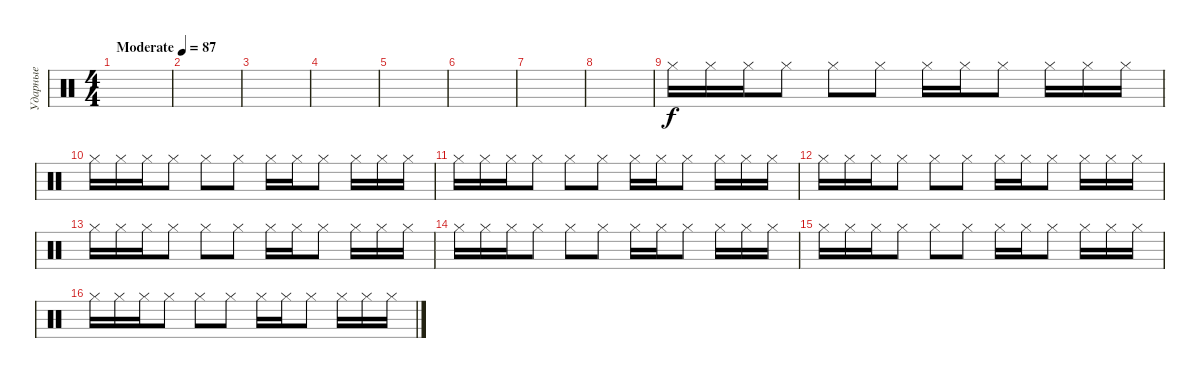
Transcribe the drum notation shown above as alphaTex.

\track ("Ударные" "Ударные") {instrument percussion}
\staff {score}
\articulation defaults
\ts (4 4)
\tempo (87 "Moderate")
\clef neutral
\ks c
|
|
|
|
|
|
|
|
"Hi-Hat (closed)".16 "Hi-Hat (closed)".16 "Hi-Hat (closed)".16 "Hi-Hat (closed)".8 "Hi-Hat (closed)".8 "Hi-Hat (closed)".8 "Hi-Hat (closed)".16 "Hi-Hat (closed)".16 "Hi-Hat (closed)".8 "Hi-Hat (closed)".16 "Hi-Hat (closed)".16 "Hi-Hat (closed)".16 |
"Hi-Hat (closed)".16 "Hi-Hat (closed)".16 "Hi-Hat (closed)".16 "Hi-Hat (closed)".8 "Hi-Hat (closed)".8 "Hi-Hat (closed)".8 "Hi-Hat (closed)".16 "Hi-Hat (closed)".16 "Hi-Hat (closed)".8 "Hi-Hat (closed)".16 "Hi-Hat (closed)".16 "Hi-Hat (closed)".16 |
"Hi-Hat (closed)".16 "Hi-Hat (closed)".16 "Hi-Hat (closed)".16 "Hi-Hat (closed)".8 "Hi-Hat (closed)".8 "Hi-Hat (closed)".8 "Hi-Hat (closed)".16 "Hi-Hat (closed)".16 "Hi-Hat (closed)".8 "Hi-Hat (closed)".16 "Hi-Hat (closed)".16 "Hi-Hat (closed)".16 |
"Hi-Hat (closed)".16 "Hi-Hat (closed)".16 "Hi-Hat (closed)".16 "Hi-Hat (closed)".8 "Hi-Hat (closed)".8 "Hi-Hat (closed)".8 "Hi-Hat (closed)".16 "Hi-Hat (closed)".16 "Hi-Hat (closed)".8 "Hi-Hat (closed)".16 "Hi-Hat (closed)".16 "Hi-Hat (closed)".16 |
"Hi-Hat (closed)".16 "Hi-Hat (closed)".16 "Hi-Hat (closed)".16 "Hi-Hat (closed)".8 "Hi-Hat (closed)".8 "Hi-Hat (closed)".8 "Hi-Hat (closed)".16 "Hi-Hat (closed)".16 "Hi-Hat (closed)".8 "Hi-Hat (closed)".16 "Hi-Hat (closed)".16 "Hi-Hat (closed)".16 |
"Hi-Hat (closed)".16 "Hi-Hat (closed)".16 "Hi-Hat (closed)".16 "Hi-Hat (closed)".8 "Hi-Hat (closed)".8 "Hi-Hat (closed)".8 "Hi-Hat (closed)".16 "Hi-Hat (closed)".16 "Hi-Hat (closed)".8 "Hi-Hat (closed)".16 "Hi-Hat (closed)".16 "Hi-Hat (closed)".16 |
"Hi-Hat (closed)".16 "Hi-Hat (closed)".16 "Hi-Hat (closed)".16 "Hi-Hat (closed)".8 "Hi-Hat (closed)".8 "Hi-Hat (closed)".8 "Hi-Hat (closed)".16 "Hi-Hat (closed)".16 "Hi-Hat (closed)".8 "Hi-Hat (closed)".16 "Hi-Hat (closed)".16 "Hi-Hat (closed)".16 |
"Hi-Hat (closed)".16 "Hi-Hat (closed)".16 "Hi-Hat (closed)".16 "Hi-Hat (closed)".8 "Hi-Hat (closed)".8 "Hi-Hat (closed)".8 "Hi-Hat (closed)".16 "Hi-Hat (closed)".16 "Hi-Hat (closed)".8 "Hi-Hat (closed)".16 "Hi-Hat (closed)".16 "Hi-Hat (closed)".16
